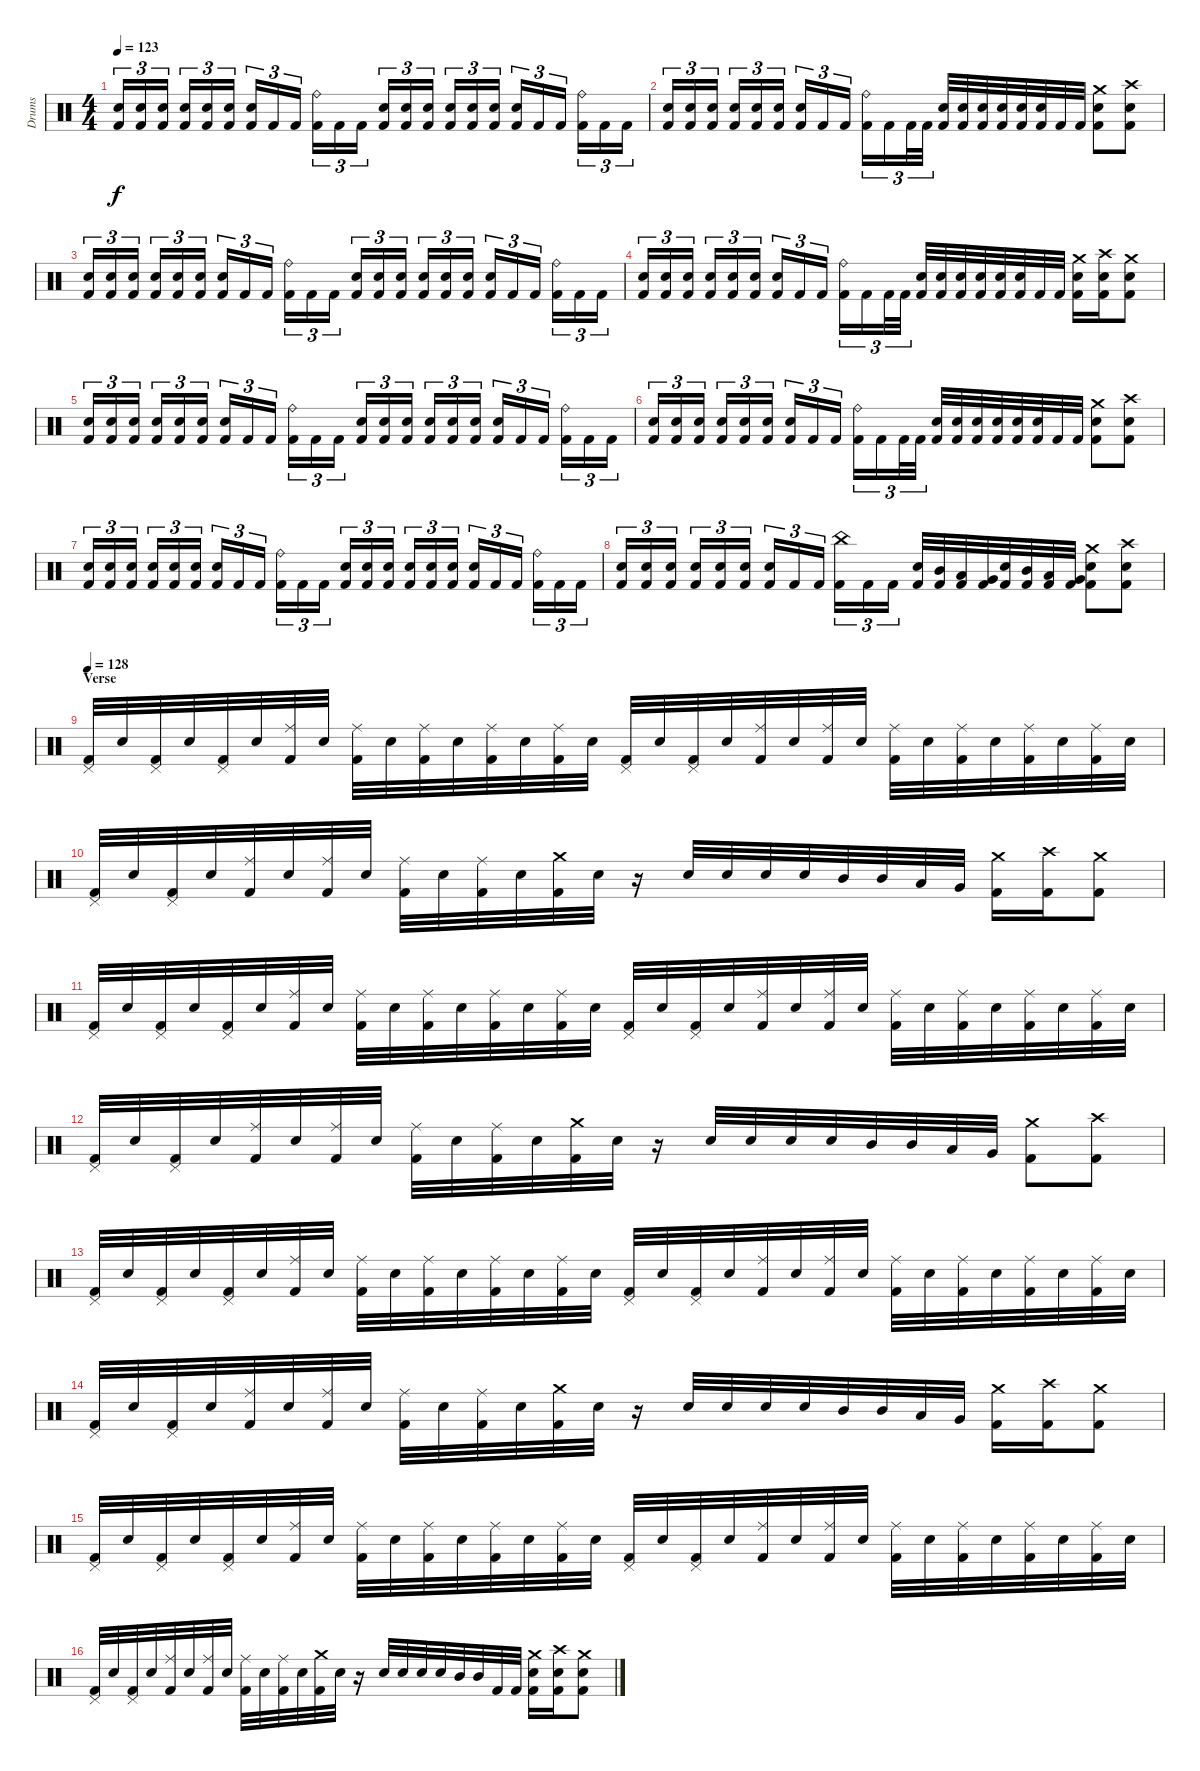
\track ("Drums" "Drums") {instrument percussion}
\staff {score}
\articulation defaults
\ts (4 4)
\section ("" "")
\tempo 123
\clef neutral
\ks c
("Electric Snare (hit)" "Kick (hit) 2").16{tu (3 2) dy f} ("Electric Snare (hit)" "Kick (hit) 2").16{tu (3 2)} ("Electric Snare (hit)" "Kick (hit) 2").16{tu (3 2)} ("Electric Snare (hit)" "Kick (hit) 2").16{tu (3 2)} ("Electric Snare (hit)" "Kick (hit) 2").16{tu (3 2)} ("Electric Snare (hit)" "Kick (hit) 2").16{tu (3 2)} ("Electric Snare (hit)" "Kick (hit) 2").16{tu (3 2)} "Kick (hit) 2".16{tu (3 2)} "Kick (hit) 2".16{tu (3 2)} ("Ride (bell)" "Kick (hit) 2").16{tu (3 2)} "Kick (hit) 2".16{tu (3 2)} "Kick (hit) 2".16{tu (3 2)} ("Electric Snare (hit)" "Kick (hit) 2").16{tu (3 2)} ("Electric Snare (hit)" "Kick (hit) 2").16{tu (3 2)} ("Electric Snare (hit)" "Kick (hit) 2").16{tu (3 2)} ("Electric Snare (hit)" "Kick (hit) 2").16{tu (3 2)} ("Electric Snare (hit)" "Kick (hit) 2").16{tu (3 2)} ("Electric Snare (hit)" "Kick (hit) 2").16{tu (3 2)} ("Electric Snare (hit)" "Kick (hit) 2").16{tu (3 2)} "Kick (hit) 2".16{tu (3 2)} "Kick (hit) 2".16{tu (3 2)} ("Ride (bell)" "Kick (hit) 2").16{tu (3 2)} "Kick (hit) 2".16{tu (3 2)} "Kick (hit) 2".16{tu (3 2)} |
("Electric Snare (hit)" "Kick (hit) 2").16{tu (3 2)} ("Electric Snare (hit)" "Kick (hit) 2").16{tu (3 2)} ("Electric Snare (hit)" "Kick (hit) 2").16{tu (3 2)} ("Electric Snare (hit)" "Kick (hit) 2").16{tu (3 2)} ("Electric Snare (hit)" "Kick (hit) 2").16{tu (3 2)} ("Electric Snare (hit)" "Kick (hit) 2").16{tu (3 2)} ("Electric Snare (hit)" "Kick (hit) 2").16{tu (3 2)} "Kick (hit) 2".16{tu (3 2)} "Kick (hit) 2".16{tu (3 2)} ("Ride (bell)" "Kick (hit) 2").16{tu (3 2)} "Kick (hit) 2".16{tu (3 2)} "Kick (hit) 2".32{tu (3 2)} "Kick (hit) 2".32{tu (3 2)} ("Electric Snare (hit)" "Kick (hit) 2").32 ("Electric Snare (hit)" "Kick (hit) 2").32 ("Electric Snare (hit)" "Kick (hit) 2").32 ("Electric Snare (hit)" "Kick (hit) 2").32 ("Electric Snare (hit)" "Kick (hit) 2").32 ("Electric Snare (hit)" "Kick (hit) 2").32 "Kick (hit) 2".32 "Kick (hit) 2".32 ("Crash medium (hit)" "Electric Snare (hit)" "Kick (hit) 2").8 ("Crash high (hit)" "Electric Snare (hit)" "Kick (hit) 2").8 |
("Electric Snare (hit)" "Kick (hit) 2").16{tu (3 2)} ("Electric Snare (hit)" "Kick (hit) 2").16{tu (3 2)} ("Electric Snare (hit)" "Kick (hit) 2").16{tu (3 2)} ("Electric Snare (hit)" "Kick (hit) 2").16{tu (3 2)} ("Electric Snare (hit)" "Kick (hit) 2").16{tu (3 2)} ("Electric Snare (hit)" "Kick (hit) 2").16{tu (3 2)} ("Electric Snare (hit)" "Kick (hit) 2").16{tu (3 2)} "Kick (hit) 2".16{tu (3 2)} "Kick (hit) 2".16{tu (3 2)} ("Ride (bell)" "Kick (hit) 2").16{tu (3 2)} "Kick (hit) 2".16{tu (3 2)} "Kick (hit) 2".16{tu (3 2)} ("Electric Snare (hit)" "Kick (hit) 2").16{tu (3 2)} ("Electric Snare (hit)" "Kick (hit) 2").16{tu (3 2)} ("Electric Snare (hit)" "Kick (hit) 2").16{tu (3 2)} ("Electric Snare (hit)" "Kick (hit) 2").16{tu (3 2)} ("Electric Snare (hit)" "Kick (hit) 2").16{tu (3 2)} ("Electric Snare (hit)" "Kick (hit) 2").16{tu (3 2)} ("Electric Snare (hit)" "Kick (hit) 2").16{tu (3 2)} "Kick (hit) 2".16{tu (3 2)} "Kick (hit) 2".16{tu (3 2)} ("Ride (bell)" "Kick (hit) 2").16{tu (3 2)} "Kick (hit) 2".16{tu (3 2)} "Kick (hit) 2".16{tu (3 2)} |
("Electric Snare (hit)" "Kick (hit) 2").16{tu (3 2)} ("Electric Snare (hit)" "Kick (hit) 2").16{tu (3 2)} ("Electric Snare (hit)" "Kick (hit) 2").16{tu (3 2)} ("Electric Snare (hit)" "Kick (hit) 2").16{tu (3 2)} ("Electric Snare (hit)" "Kick (hit) 2").16{tu (3 2)} ("Electric Snare (hit)" "Kick (hit) 2").16{tu (3 2)} ("Electric Snare (hit)" "Kick (hit) 2").16{tu (3 2)} "Kick (hit) 2".16{tu (3 2)} "Kick (hit) 2".16{tu (3 2)} ("Ride (bell)" "Kick (hit) 2").16{tu (3 2)} "Kick (hit) 2".16{tu (3 2)} "Kick (hit) 2".32{tu (3 2)} "Kick (hit) 2".32{tu (3 2)} ("Electric Snare (hit)" "Kick (hit) 2").32 ("Electric Snare (hit)" "Kick (hit) 2").32 ("Electric Snare (hit)" "Kick (hit) 2").32 ("Electric Snare (hit)" "Kick (hit) 2").32 ("Electric Snare (hit)" "Kick (hit) 2").32 ("Electric Snare (hit)" "Kick (hit) 2").32 "Kick (hit) 2".32 "Kick (hit) 2".32 ("Crash medium (hit)" "Electric Snare (hit)" "Kick (hit) 2").16 ("Crash high (hit)" "Electric Snare (hit)" "Kick (hit) 2").16 ("Crash medium (hit)" "Electric Snare (hit)" "Kick (hit) 2").8 |
("Electric Snare (hit)" "Kick (hit) 2").16{tu (3 2)} ("Electric Snare (hit)" "Kick (hit) 2").16{tu (3 2)} ("Electric Snare (hit)" "Kick (hit) 2").16{tu (3 2)} ("Electric Snare (hit)" "Kick (hit) 2").16{tu (3 2)} ("Electric Snare (hit)" "Kick (hit) 2").16{tu (3 2)} ("Electric Snare (hit)" "Kick (hit) 2").16{tu (3 2)} ("Electric Snare (hit)" "Kick (hit) 2").16{tu (3 2)} "Kick (hit) 2".16{tu (3 2)} "Kick (hit) 2".16{tu (3 2)} ("Ride (bell)" "Kick (hit) 2").16{tu (3 2)} "Kick (hit) 2".16{tu (3 2)} "Kick (hit) 2".16{tu (3 2)} ("Electric Snare (hit)" "Kick (hit) 2").16{tu (3 2)} ("Electric Snare (hit)" "Kick (hit) 2").16{tu (3 2)} ("Electric Snare (hit)" "Kick (hit) 2").16{tu (3 2)} ("Electric Snare (hit)" "Kick (hit) 2").16{tu (3 2)} ("Electric Snare (hit)" "Kick (hit) 2").16{tu (3 2)} ("Electric Snare (hit)" "Kick (hit) 2").16{tu (3 2)} ("Electric Snare (hit)" "Kick (hit) 2").16{tu (3 2)} "Kick (hit) 2".16{tu (3 2)} "Kick (hit) 2".16{tu (3 2)} ("Ride (bell)" "Kick (hit) 2").16{tu (3 2)} "Kick (hit) 2".16{tu (3 2)} "Kick (hit) 2".16{tu (3 2)} |
("Electric Snare (hit)" "Kick (hit) 2").16{tu (3 2)} ("Electric Snare (hit)" "Kick (hit) 2").16{tu (3 2)} ("Electric Snare (hit)" "Kick (hit) 2").16{tu (3 2)} ("Electric Snare (hit)" "Kick (hit) 2").16{tu (3 2)} ("Electric Snare (hit)" "Kick (hit) 2").16{tu (3 2)} ("Electric Snare (hit)" "Kick (hit) 2").16{tu (3 2)} ("Electric Snare (hit)" "Kick (hit) 2").16{tu (3 2)} "Kick (hit) 2".16{tu (3 2)} "Kick (hit) 2".16{tu (3 2)} ("Ride (bell)" "Kick (hit) 2").16{tu (3 2)} "Kick (hit) 2".16{tu (3 2)} "Kick (hit) 2".32{tu (3 2)} "Kick (hit) 2".32{tu (3 2)} ("Electric Snare (hit)" "Kick (hit) 2").32 ("Electric Snare (hit)" "Kick (hit) 2").32 ("Electric Snare (hit)" "Kick (hit) 2").32 ("Electric Snare (hit)" "Kick (hit) 2").32 ("Electric Snare (hit)" "Kick (hit) 2").32 ("Electric Snare (hit)" "Kick (hit) 2").32 "Kick (hit) 2".32 "Kick (hit) 2".32 ("Crash medium (hit)" "Electric Snare (hit)" "Kick (hit) 2").8 ("Crash high (hit)" "Electric Snare (hit)" "Kick (hit) 2").8 |
("Electric Snare (hit)" "Kick (hit) 2").16{tu (3 2)} ("Electric Snare (hit)" "Kick (hit) 2").16{tu (3 2)} ("Electric Snare (hit)" "Kick (hit) 2").16{tu (3 2)} ("Electric Snare (hit)" "Kick (hit) 2").16{tu (3 2)} ("Electric Snare (hit)" "Kick (hit) 2").16{tu (3 2)} ("Electric Snare (hit)" "Kick (hit) 2").16{tu (3 2)} ("Electric Snare (hit)" "Kick (hit) 2").16{tu (3 2)} "Kick (hit) 2".16{tu (3 2)} "Kick (hit) 2".16{tu (3 2)} ("Ride (bell)" "Kick (hit) 2").16{tu (3 2)} "Kick (hit) 2".16{tu (3 2)} "Kick (hit) 2".16{tu (3 2)} ("Electric Snare (hit)" "Kick (hit) 2").16{tu (3 2)} ("Electric Snare (hit)" "Kick (hit) 2").16{tu (3 2)} ("Electric Snare (hit)" "Kick (hit) 2").16{tu (3 2)} ("Electric Snare (hit)" "Kick (hit) 2").16{tu (3 2)} ("Electric Snare (hit)" "Kick (hit) 2").16{tu (3 2)} ("Electric Snare (hit)" "Kick (hit) 2").16{tu (3 2)} ("Electric Snare (hit)" "Kick (hit) 2").16{tu (3 2)} "Kick (hit) 2".16{tu (3 2)} "Kick (hit) 2".16{tu (3 2)} ("Ride (bell)" "Kick (hit) 2").16{tu (3 2)} "Kick (hit) 2".16{tu (3 2)} "Kick (hit) 2".16{tu (3 2)} |
("Electric Snare (hit)" "Kick (hit) 2").16{tu (3 2)} ("Electric Snare (hit)" "Kick (hit) 2").16{tu (3 2)} ("Electric Snare (hit)" "Kick (hit) 2").16{tu (3 2)} ("Electric Snare (hit)" "Kick (hit) 2").16{tu (3 2)} ("Electric Snare (hit)" "Kick (hit) 2").16{tu (3 2)} ("Electric Snare (hit)" "Kick (hit) 2").16{tu (3 2)} ("Electric Snare (hit)" "Kick (hit) 2").16{tu (3 2)} "Kick (hit) 2".16{tu (3 2)} "Kick (hit) 2".16{tu (3 2)} ("China (hit)" "Kick (hit) 2").16{tu (3 2)} "Kick (hit) 2".16{tu (3 2)} "Kick (hit) 2".16{tu (3 2)} ("Electric Snare (hit)" "Kick (hit) 2").32 ("Mid Tom (hit)" "Kick (hit) 2").32 ("Low Tom (hit)" "Kick (hit) 2").32 ("Very Low Tom (hit)" "Kick (hit) 2").32 ("Electric Snare (hit)" "Kick (hit) 2").32 ("Mid Tom (hit)" "Kick (hit) 2").32 ("Low Tom (hit)" "Kick (hit) 2").32 ("Very Low Tom (hit)" "Kick (hit) 2").32 ("Crash medium (hit)" "Electric Snare (hit)" "Kick (hit) 2").8 ("Crash high (hit)" "Electric Snare (hit)" "Kick (hit) 2").8 |
\section ("" "Verse")
\tempo 128
("Pedal Hi-Hat (hit)" "Kick (hit) 2").32 "Electric Snare (hit)".32 ("Pedal Hi-Hat (hit)" "Kick (hit) 2").32 "Electric Snare (hit)".32 ("Pedal Hi-Hat (hit)" "Kick (hit) 2").32 "Electric Snare (hit)".32 ("Ride (middle)" "Kick (hit) 2").32 "Electric Snare (hit)".32 ("Ride (middle)" "Kick (hit) 2").32 "Electric Snare (hit)".32 ("Ride (middle)" "Kick (hit) 2").32 "Electric Snare (hit)".32 ("Ride (middle)" "Kick (hit) 2").32 "Electric Snare (hit)".32 ("Ride (middle)" "Kick (hit) 2").32 "Electric Snare (hit)".32 ("Pedal Hi-Hat (hit)" "Kick (hit) 2").32 "Electric Snare (hit)".32 ("Pedal Hi-Hat (hit)" "Kick (hit) 2").32 "Electric Snare (hit)".32 ("Ride (middle)" "Kick (hit) 2").32 "Electric Snare (hit)".32 ("Ride (middle)" "Kick (hit) 2").32 "Electric Snare (hit)".32 ("Ride (middle)" "Kick (hit) 2").32 "Electric Snare (hit)".32 ("Ride (middle)" "Kick (hit) 2").32 "Electric Snare (hit)".32 ("Ride (middle)" "Kick (hit) 2").32 "Electric Snare (hit)".32 ("Ride (middle)" "Kick (hit) 2").32 "Electric Snare (hit)".32 |
("Pedal Hi-Hat (hit)" "Kick (hit) 2").32 "Electric Snare (hit)".32 ("Pedal Hi-Hat (hit)" "Kick (hit) 2").32 "Electric Snare (hit)".32 ("Ride (middle)" "Kick (hit) 2").32 "Electric Snare (hit)".32 ("Ride (middle)" "Kick (hit) 2").32 "Electric Snare (hit)".32 ("Ride (middle)" "Kick (hit) 2").32 "Electric Snare (hit)".32 ("Ride (middle)" "Kick (hit) 2").32 "Electric Snare (hit)".32 ("Crash medium (hit)" "Kick (hit) 2").32 "Electric Snare (hit)".32 r.16 "Electric Snare (hit)".32 "Electric Snare (hit)".32 "Electric Snare (hit)".32 "Electric Snare (hit)".32 "Mid Tom (hit)".32 "Mid Tom (hit)".32 "Low Tom (hit)".32 "Very Low Tom (hit)".32 ("Crash medium (hit)" "Kick (hit) 2").16 ("Crash high (hit)" "Kick (hit) 2").16 ("Crash medium (hit)" "Kick (hit) 2").8 |
("Pedal Hi-Hat (hit)" "Kick (hit) 2").32 "Electric Snare (hit)".32 ("Pedal Hi-Hat (hit)" "Kick (hit) 2").32 "Electric Snare (hit)".32 ("Pedal Hi-Hat (hit)" "Kick (hit) 2").32 "Electric Snare (hit)".32 ("Ride (middle)" "Kick (hit) 2").32 "Electric Snare (hit)".32 ("Ride (middle)" "Kick (hit) 2").32 "Electric Snare (hit)".32 ("Ride (middle)" "Kick (hit) 2").32 "Electric Snare (hit)".32 ("Ride (middle)" "Kick (hit) 2").32 "Electric Snare (hit)".32 ("Ride (middle)" "Kick (hit) 2").32 "Electric Snare (hit)".32 ("Pedal Hi-Hat (hit)" "Kick (hit) 2").32 "Electric Snare (hit)".32 ("Pedal Hi-Hat (hit)" "Kick (hit) 2").32 "Electric Snare (hit)".32 ("Ride (middle)" "Kick (hit) 2").32 "Electric Snare (hit)".32 ("Ride (middle)" "Kick (hit) 2").32 "Electric Snare (hit)".32 ("Ride (middle)" "Kick (hit) 2").32 "Electric Snare (hit)".32 ("Ride (middle)" "Kick (hit) 2").32 "Electric Snare (hit)".32 ("Ride (middle)" "Kick (hit) 2").32 "Electric Snare (hit)".32 ("Ride (middle)" "Kick (hit) 2").32 "Electric Snare (hit)".32 |
("Pedal Hi-Hat (hit)" "Kick (hit) 2").32 "Electric Snare (hit)".32 ("Pedal Hi-Hat (hit)" "Kick (hit) 2").32 "Electric Snare (hit)".32 ("Ride (middle)" "Kick (hit) 2").32 "Electric Snare (hit)".32 ("Ride (middle)" "Kick (hit) 2").32 "Electric Snare (hit)".32 ("Ride (middle)" "Kick (hit) 2").32 "Electric Snare (hit)".32 ("Ride (middle)" "Kick (hit) 2").32 "Electric Snare (hit)".32 ("Crash medium (hit)" "Kick (hit) 2").32 "Electric Snare (hit)".32 r.16 "Electric Snare (hit)".32 "Electric Snare (hit)".32 "Electric Snare (hit)".32 "Electric Snare (hit)".32 "Mid Tom (hit)".32 "Mid Tom (hit)".32 "Low Tom (hit)".32 "Very Low Tom (hit)".32 ("Crash medium (hit)" "Kick (hit) 2").8 ("Crash high (hit)" "Kick (hit) 2").8 |
("Pedal Hi-Hat (hit)" "Kick (hit) 2").32 "Electric Snare (hit)".32 ("Pedal Hi-Hat (hit)" "Kick (hit) 2").32 "Electric Snare (hit)".32 ("Pedal Hi-Hat (hit)" "Kick (hit) 2").32 "Electric Snare (hit)".32 ("Ride (middle)" "Kick (hit) 2").32 "Electric Snare (hit)".32 ("Ride (middle)" "Kick (hit) 2").32 "Electric Snare (hit)".32 ("Ride (middle)" "Kick (hit) 2").32 "Electric Snare (hit)".32 ("Ride (middle)" "Kick (hit) 2").32 "Electric Snare (hit)".32 ("Ride (middle)" "Kick (hit) 2").32 "Electric Snare (hit)".32 ("Pedal Hi-Hat (hit)" "Kick (hit) 2").32 "Electric Snare (hit)".32 ("Pedal Hi-Hat (hit)" "Kick (hit) 2").32 "Electric Snare (hit)".32 ("Ride (middle)" "Kick (hit) 2").32 "Electric Snare (hit)".32 ("Ride (middle)" "Kick (hit) 2").32 "Electric Snare (hit)".32 ("Ride (middle)" "Kick (hit) 2").32 "Electric Snare (hit)".32 ("Ride (middle)" "Kick (hit) 2").32 "Electric Snare (hit)".32 ("Ride (middle)" "Kick (hit) 2").32 "Electric Snare (hit)".32 ("Ride (middle)" "Kick (hit) 2").32 "Electric Snare (hit)".32 |
("Pedal Hi-Hat (hit)" "Kick (hit) 2").32 "Electric Snare (hit)".32 ("Pedal Hi-Hat (hit)" "Kick (hit) 2").32 "Electric Snare (hit)".32 ("Ride (middle)" "Kick (hit) 2").32 "Electric Snare (hit)".32 ("Ride (middle)" "Kick (hit) 2").32 "Electric Snare (hit)".32 ("Ride (middle)" "Kick (hit) 2").32 "Electric Snare (hit)".32 ("Ride (middle)" "Kick (hit) 2").32 "Electric Snare (hit)".32 ("Crash medium (hit)" "Kick (hit) 2").32 "Electric Snare (hit)".32 r.16 "Electric Snare (hit)".32 "Electric Snare (hit)".32 "Electric Snare (hit)".32 "Electric Snare (hit)".32 "Mid Tom (hit)".32 "Mid Tom (hit)".32 "Low Tom (hit)".32 "Very Low Tom (hit)".32 ("Crash medium (hit)" "Kick (hit) 2").16 ("Crash high (hit)" "Kick (hit) 2").16 ("Crash medium (hit)" "Kick (hit) 2").8 |
("Pedal Hi-Hat (hit)" "Kick (hit) 2").32 "Electric Snare (hit)".32 ("Pedal Hi-Hat (hit)" "Kick (hit) 2").32 "Electric Snare (hit)".32 ("Pedal Hi-Hat (hit)" "Kick (hit) 2").32 "Electric Snare (hit)".32 ("Ride (middle)" "Kick (hit) 2").32 "Electric Snare (hit)".32 ("Ride (middle)" "Kick (hit) 2").32 "Electric Snare (hit)".32 ("Ride (middle)" "Kick (hit) 2").32 "Electric Snare (hit)".32 ("Ride (middle)" "Kick (hit) 2").32 "Electric Snare (hit)".32 ("Ride (middle)" "Kick (hit) 2").32 "Electric Snare (hit)".32 ("Pedal Hi-Hat (hit)" "Kick (hit) 2").32 "Electric Snare (hit)".32 ("Pedal Hi-Hat (hit)" "Kick (hit) 2").32 "Electric Snare (hit)".32 ("Ride (middle)" "Kick (hit) 2").32 "Electric Snare (hit)".32 ("Ride (middle)" "Kick (hit) 2").32 "Electric Snare (hit)".32 ("Ride (middle)" "Kick (hit) 2").32 "Electric Snare (hit)".32 ("Ride (middle)" "Kick (hit) 2").32 "Electric Snare (hit)".32 ("Ride (middle)" "Kick (hit) 2").32 "Electric Snare (hit)".32 ("Ride (middle)" "Kick (hit) 2").32 "Electric Snare (hit)".32 |
("Pedal Hi-Hat (hit)" "Kick (hit) 2").32 "Electric Snare (hit)".32 ("Pedal Hi-Hat (hit)" "Kick (hit) 2").32 "Electric Snare (hit)".32 ("Ride (middle)" "Kick (hit) 2").32 "Electric Snare (hit)".32 ("Ride (middle)" "Kick (hit) 2").32 "Electric Snare (hit)".32 ("Ride (middle)" "Kick (hit) 2").32 "Electric Snare (hit)".32 ("Ride (middle)" "Kick (hit) 2").32 "Electric Snare (hit)".32 ("Crash medium (hit)" "Kick (hit) 2").32 "Electric Snare (hit)".32 r.16 "Electric Snare (hit)".32 "Electric Snare (hit)".32 "Electric Snare (hit)".32 "Electric Snare (hit)".32 "Mid Tom (hit)".32 "Mid Tom (hit)".32 "Kick (hit) 2".32 "Kick (hit) 2".32 ("Crash medium (hit)" "Electric Snare (hit)" "Kick (hit) 2").16 ("Crash high (hit)" "Electric Snare (hit)" "Kick (hit) 2").16 ("Crash medium (hit)" "Electric Snare (hit)" "Kick (hit) 2").8
